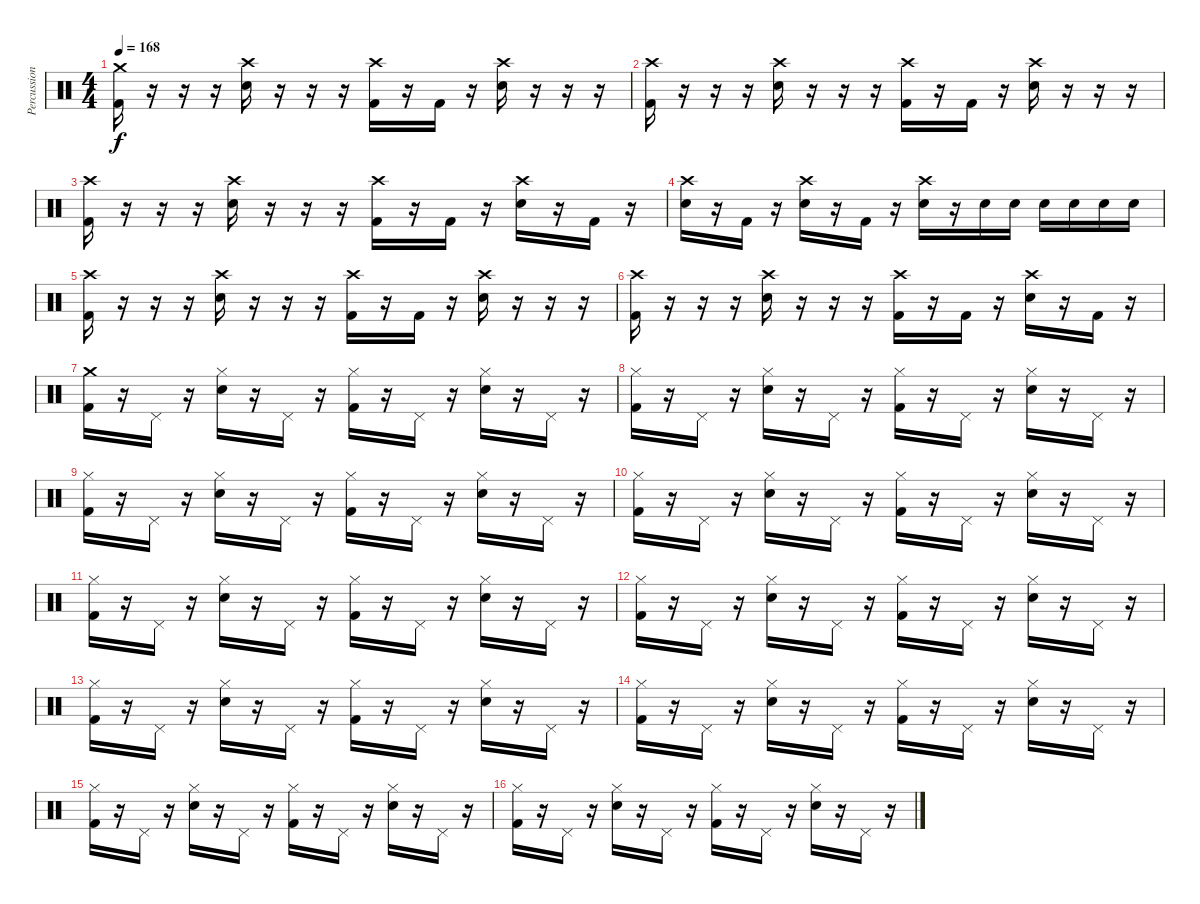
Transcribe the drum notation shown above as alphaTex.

\track ("Percussion" "Percussion") {instrument percussion}
\staff {score}
\articulation defaults
\ts (4 4)
\tempo 168
\clef neutral
\ks c
("Crash medium (hit)" "Kick (hit) 2").16{dy f} r.16 r.16 r.16 ("Crash high (hit)" "Snare (hit) 2").16 r.16 r.16 r.16 ("Crash high (hit)" "Kick (hit) 2").16 r.16 "Kick (hit) 2".16 r.16 ("Crash high (hit)" "Snare (hit) 2").16 r.16 r.16 r.16 |
("Crash high (hit)" "Kick (hit) 2").16 r.16 r.16 r.16 ("Crash high (hit)" "Snare (hit) 2").16 r.16 r.16 r.16 ("Crash high (hit)" "Kick (hit) 2").16 r.16 "Kick (hit) 2".16 r.16 ("Crash high (hit)" "Snare (hit) 2").16 r.16 r.16 r.16 |
("Crash high (hit)" "Kick (hit) 2").16 r.16 r.16 r.16 ("Crash high (hit)" "Snare (hit) 2").16 r.16 r.16 r.16 ("Crash high (hit)" "Kick (hit) 2").16 r.16 "Kick (hit) 2".16 r.16 ("Crash high (hit)" "Snare (hit) 2").16 r.16 "Kick (hit) 2".16 r.16 |
("Crash high (hit)" "Snare (hit) 2").16 r.16 "Kick (hit) 2".16 r.16 ("Crash high (hit)" "Snare (hit) 2").16 r.16 "Kick (hit) 2".16 r.16 ("Crash high (hit)" "Snare (hit) 2").16 r.16 "Snare (hit) 2".16 "Snare (hit) 2".16 "Snare (hit) 2".16 "Snare (hit) 2".16 "Snare (hit) 2".16 "Snare (hit) 2".16 |
("Crash high (hit)" "Kick (hit) 2").16 r.16 r.16 r.16 ("Crash high (hit)" "Snare (hit) 2").16 r.16 r.16 r.16 ("Crash high (hit)" "Kick (hit) 2").16 r.16 "Kick (hit) 2".16 r.16 ("Crash high (hit)" "Snare (hit) 2").16 r.16 r.16 r.16 |
("Crash high (hit)" "Kick (hit) 2").16 r.16 r.16 r.16 ("Crash high (hit)" "Snare (hit) 2").16 r.16 r.16 r.16 ("Crash high (hit)" "Kick (hit) 2").16 r.16 "Kick (hit) 2".16 r.16 ("Crash high (hit)" "Snare (hit) 2").16 r.16 "Kick (hit) 2".16 r.16 |
("Crash medium (hit)" "Kick (hit) 2").16 r.16 "Pedal Hi-Hat (hit)".16 r.16 ("Hi-Hat (closed)" "Snare (hit) 2").16 r.16 "Pedal Hi-Hat (hit)".16 r.16 ("Hi-Hat (closed)" "Kick (hit) 2").16 r.16 "Pedal Hi-Hat (hit)".16 r.16 ("Hi-Hat (closed)" "Snare (hit) 2").16 r.16 "Pedal Hi-Hat (hit)".16 r.16 |
("Hi-Hat (closed)" "Kick (hit) 2").16 r.16 "Pedal Hi-Hat (hit)".16 r.16 ("Hi-Hat (closed)" "Snare (hit) 2").16 r.16 "Pedal Hi-Hat (hit)".16 r.16 ("Hi-Hat (closed)" "Kick (hit) 2").16 r.16 "Pedal Hi-Hat (hit)".16 r.16 ("Hi-Hat (closed)" "Snare (hit) 2").16 r.16 "Pedal Hi-Hat (hit)".16 r.16 |
("Hi-Hat (closed)" "Kick (hit) 2").16 r.16 "Pedal Hi-Hat (hit)".16 r.16 ("Hi-Hat (closed)" "Snare (hit) 2").16 r.16 "Pedal Hi-Hat (hit)".16 r.16 ("Hi-Hat (closed)" "Kick (hit) 2").16 r.16 "Pedal Hi-Hat (hit)".16 r.16 ("Hi-Hat (closed)" "Snare (hit) 2").16 r.16 "Pedal Hi-Hat (hit)".16 r.16 |
("Hi-Hat (closed)" "Kick (hit) 2").16 r.16 "Pedal Hi-Hat (hit)".16 r.16 ("Hi-Hat (closed)" "Snare (hit) 2").16 r.16 "Pedal Hi-Hat (hit)".16 r.16 ("Hi-Hat (closed)" "Kick (hit) 2").16 r.16 "Pedal Hi-Hat (hit)".16 r.16 ("Hi-Hat (closed)" "Snare (hit) 2").16 r.16 "Pedal Hi-Hat (hit)".16 r.16 |
("Hi-Hat (closed)" "Kick (hit) 2").16 r.16 "Pedal Hi-Hat (hit)".16 r.16 ("Hi-Hat (closed)" "Snare (hit) 2").16 r.16 "Pedal Hi-Hat (hit)".16 r.16 ("Hi-Hat (closed)" "Kick (hit) 2").16 r.16 "Pedal Hi-Hat (hit)".16 r.16 ("Hi-Hat (closed)" "Snare (hit) 2").16 r.16 "Pedal Hi-Hat (hit)".16 r.16 |
("Hi-Hat (closed)" "Kick (hit) 2").16 r.16 "Pedal Hi-Hat (hit)".16 r.16 ("Hi-Hat (closed)" "Snare (hit) 2").16 r.16 "Pedal Hi-Hat (hit)".16 r.16 ("Hi-Hat (closed)" "Kick (hit) 2").16 r.16 "Pedal Hi-Hat (hit)".16 r.16 ("Hi-Hat (closed)" "Snare (hit) 2").16 r.16 "Pedal Hi-Hat (hit)".16 r.16 |
("Hi-Hat (closed)" "Kick (hit) 2").16 r.16 "Pedal Hi-Hat (hit)".16 r.16 ("Hi-Hat (closed)" "Snare (hit) 2").16 r.16 "Pedal Hi-Hat (hit)".16 r.16 ("Hi-Hat (closed)" "Kick (hit) 2").16 r.16 "Pedal Hi-Hat (hit)".16 r.16 ("Hi-Hat (closed)" "Snare (hit) 2").16 r.16 "Pedal Hi-Hat (hit)".16 r.16 |
("Hi-Hat (closed)" "Kick (hit) 2").16 r.16 "Pedal Hi-Hat (hit)".16 r.16 ("Hi-Hat (closed)" "Snare (hit) 2").16 r.16 "Pedal Hi-Hat (hit)".16 r.16 ("Hi-Hat (closed)" "Kick (hit) 2").16 r.16 "Pedal Hi-Hat (hit)".16 r.16 ("Hi-Hat (closed)" "Snare (hit) 2").16 r.16 "Pedal Hi-Hat (hit)".16 r.16 |
("Hi-Hat (closed)" "Kick (hit) 2").16 r.16 "Pedal Hi-Hat (hit)".16 r.16 ("Hi-Hat (closed)" "Snare (hit) 2").16 r.16 "Pedal Hi-Hat (hit)".16 r.16 ("Hi-Hat (closed)" "Kick (hit) 2").16 r.16 "Pedal Hi-Hat (hit)".16 r.16 ("Hi-Hat (closed)" "Snare (hit) 2").16 r.16 "Pedal Hi-Hat (hit)".16 r.16 |
("Hi-Hat (closed)" "Kick (hit) 2").16 r.16 "Pedal Hi-Hat (hit)".16 r.16 ("Hi-Hat (closed)" "Snare (hit) 2").16 r.16 "Pedal Hi-Hat (hit)".16 r.16 ("Hi-Hat (closed)" "Kick (hit) 2").16 r.16 "Pedal Hi-Hat (hit)".16 r.16 ("Hi-Hat (closed)" "Snare (hit) 2").16 r.16 "Pedal Hi-Hat (hit)".16 r.16
